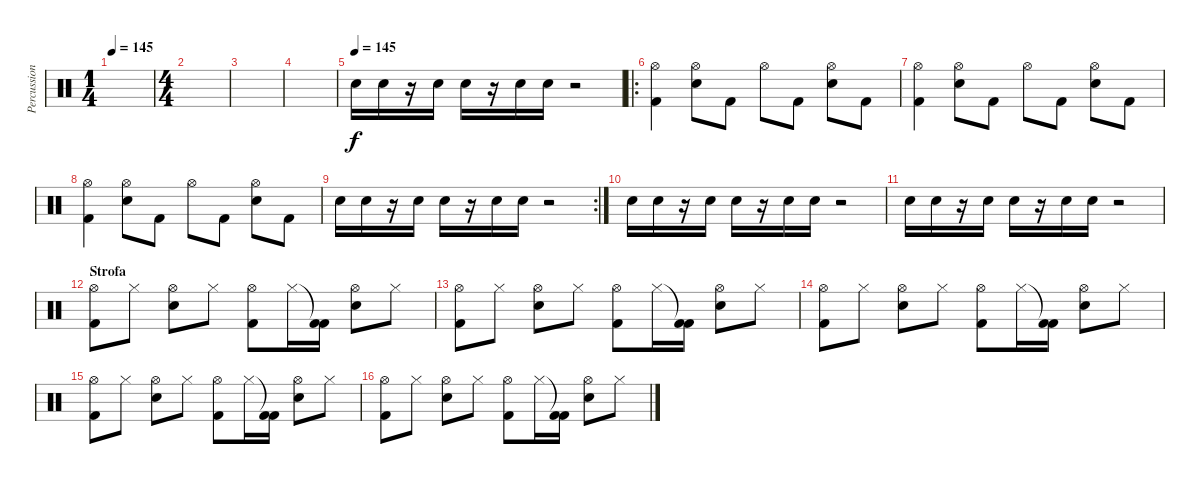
\track ("Percussioni" "Percussion") {instrument percussion}
\staff {score}
\articulation defaults
\ts (1 4)
\tempo 145
\tempo 120
\tempo 145
\clef neutral
\ks c
|
\ts (4 4)
|
|
|
\tempo (145)
"Electric Snare (hit)".16 "Electric Snare (hit)".16 r.16 "Electric Snare (hit)".16 "Electric Snare (hit)".16 r.16 "Electric Snare (hit)".16 "Electric Snare (hit)".16 r.2 |
\ro
("Hi-Hat (open)" "Kick (hit) 2").4 ("Hi-Hat (open)" "Electric Snare (hit)").8 "Kick (hit) 2".8 "Hi-Hat (open)".8 "Kick (hit) 2".8 ("Hi-Hat (open)" "Electric Snare (hit)").8 "Kick (hit) 2".8 |
("Hi-Hat (open)" "Kick (hit) 2").4 ("Hi-Hat (open)" "Electric Snare (hit)").8 "Kick (hit) 2".8 "Hi-Hat (open)".8 "Kick (hit) 2".8 ("Hi-Hat (open)" "Electric Snare (hit)").8 "Kick (hit) 2".8 |
("Hi-Hat (open)" "Kick (hit) 2").4 ("Hi-Hat (open)" "Electric Snare (hit)").8 "Kick (hit) 2".8 "Hi-Hat (open)".8 "Kick (hit) 2".8 ("Hi-Hat (open)" "Electric Snare (hit)").8 "Kick (hit) 2".8 |
\rc 2 "Electric Snare (hit)".16 "Electric Snare (hit)".16
r.16 "Electric Snare (hit)".16 "Electric Snare (hit)".16 r.16 "Electric Snare (hit)".16 "Electric Snare (hit)".16 r.2 |
"Electric Snare (hit)".16 "Electric Snare (hit)".16 r.16 "Electric Snare (hit)".16 "Electric Snare (hit)".16 r.16 "Electric Snare (hit)".16 "Electric Snare (hit)".16 r.2 |
"Electric Snare (hit)".16 "Electric Snare (hit)".16 r.16 "Electric Snare (hit)".16 "Electric Snare (hit)".16 r.16 "Electric Snare (hit)".16 "Electric Snare (hit)".16 r.2 |
\section ("" "Strofa")
("Hi-Hat (open)" "Kick (hit) 2").8 "Hi-Hat (closed)".8 ("Hi-Hat (open)" "Electric Snare (hit)").8 "Hi-Hat (closed)".8 ("Hi-Hat (open)" "Kick (hit) 2").8 "Hi-Hat (closed)".16 ("Kick (hit) 2"{t} "Kick (hit) 2").16 ("Hi-Hat (open)" "Electric Snare (hit)").8 "Hi-Hat (closed)".8 |
("Hi-Hat (open)" "Kick (hit) 2").8 "Hi-Hat (closed)".8 ("Hi-Hat (open)" "Electric Snare (hit)").8 "Hi-Hat (closed)".8 ("Hi-Hat (open)" "Kick (hit) 2").8 "Hi-Hat (closed)".16 ("Kick (hit) 2"{t} "Kick (hit) 2").16 ("Hi-Hat (open)" "Electric Snare (hit)").8 "Hi-Hat (closed)".8 |
("Hi-Hat (open)" "Kick (hit) 2").8 "Hi-Hat (closed)".8 ("Hi-Hat (open)" "Electric Snare (hit)").8 "Hi-Hat (closed)".8 ("Hi-Hat (open)" "Kick (hit) 2").8 "Hi-Hat (closed)".16 ("Kick (hit) 2"{t} "Kick (hit) 2").16 ("Hi-Hat (open)" "Electric Snare (hit)").8 "Hi-Hat (closed)".8 |
("Hi-Hat (open)" "Kick (hit) 2").8 "Hi-Hat (closed)".8 ("Hi-Hat (open)" "Electric Snare (hit)").8 "Hi-Hat (closed)".8 ("Hi-Hat (open)" "Kick (hit) 2").8 "Hi-Hat (closed)".16 ("Kick (hit) 2"{t} "Kick (hit) 2").16 ("Hi-Hat (open)" "Electric Snare (hit)").8 "Hi-Hat (closed)".8 |
("Hi-Hat (open)" "Kick (hit) 2").8 "Hi-Hat (closed)".8 ("Hi-Hat (open)" "Electric Snare (hit)").8 "Hi-Hat (closed)".8 ("Hi-Hat (open)" "Kick (hit) 2").8 "Hi-Hat (closed)".16 ("Kick (hit) 2"{t} "Kick (hit) 2").16 ("Hi-Hat (open)" "Electric Snare (hit)").8 "Hi-Hat (closed)".8
